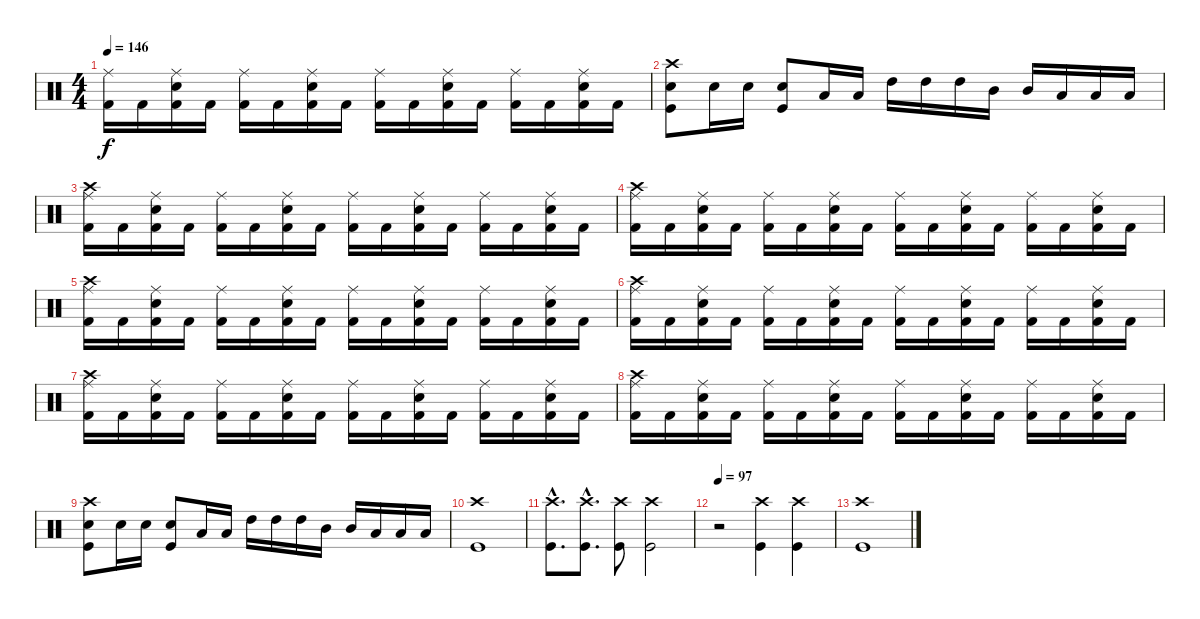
\track "" {instrument percussion}
\staff {score}
\articulation defaults
\ts (4 4)
\tempo 146
\clef neutral
\ks c
("Ride (middle)" "Kick (hit) 2").16{dy f} "Kick (hit) 2".16 ("Electric Snare (hit)" "Ride (middle)" "Kick (hit) 2").16 "Kick (hit) 2".16 ("Ride (middle)" "Kick (hit) 2").16 "Kick (hit) 2".16 ("Electric Snare (hit)" "Ride (middle)" "Kick (hit) 2").16 "Kick (hit) 2".16 ("Ride (middle)" "Kick (hit) 2").16 "Kick (hit) 2".16 ("Electric Snare (hit)" "Ride (middle)" "Kick (hit) 2").16 "Kick (hit) 2".16 ("Ride (middle)" "Kick (hit) 2").16 "Kick (hit) 2".16 ("Electric Snare (hit)" "Ride (middle)" "Kick (hit) 2").16 "Kick (hit) 2".16 |
("Crash high (hit)" "Kick (hit)" "Snare (hit) 2").8 "Snare (hit) 2".16 "Snare (hit) 2".16 ("Snare (hit) 2" "Kick (hit)").8 "Low Tom (hit)".16 "Low Tom (hit)".16 "High Tom (hit)".16 "High Tom (hit)".16 "High Tom (hit)".16 "Mid Tom (hit)".16 "Mid Tom (hit)".16 "Low Tom (hit)".16 "Low Tom (hit)".16 "Low Tom (hit)".16 |
("Crash high (hit)" "Ride (middle)" "Kick (hit) 2").16 "Kick (hit) 2".16 ("Electric Snare (hit)" "Ride (middle)" "Kick (hit) 2").16 "Kick (hit) 2".16 ("Ride (middle)" "Kick (hit) 2").16 "Kick (hit) 2".16 ("Electric Snare (hit)" "Ride (middle)" "Kick (hit) 2").16 "Kick (hit) 2".16 ("Ride (middle)" "Kick (hit) 2").16 "Kick (hit) 2".16 ("Electric Snare (hit)" "Ride (middle)" "Kick (hit) 2").16 "Kick (hit) 2".16 ("Ride (middle)" "Kick (hit) 2").16 "Kick (hit) 2".16 ("Electric Snare (hit)" "Ride (middle)" "Kick (hit) 2").16 "Kick (hit) 2".16 |
("Crash high (hit)" "Ride (middle)" "Kick (hit) 2").16 "Kick (hit) 2".16 ("Electric Snare (hit)" "Ride (middle)" "Kick (hit) 2").16 "Kick (hit) 2".16 ("Ride (middle)" "Kick (hit) 2").16 "Kick (hit) 2".16 ("Electric Snare (hit)" "Ride (middle)" "Kick (hit) 2").16 "Kick (hit) 2".16 ("Ride (middle)" "Kick (hit) 2").16 "Kick (hit) 2".16 ("Electric Snare (hit)" "Ride (middle)" "Kick (hit) 2").16 "Kick (hit) 2".16 ("Ride (middle)" "Kick (hit) 2").16 "Kick (hit) 2".16 ("Electric Snare (hit)" "Ride (middle)" "Kick (hit) 2").16 "Kick (hit) 2".16 |
("Crash high (hit)" "Ride (middle)" "Kick (hit) 2").16 "Kick (hit) 2".16 ("Electric Snare (hit)" "Ride (middle)" "Kick (hit) 2").16 "Kick (hit) 2".16 ("Ride (middle)" "Kick (hit) 2").16 "Kick (hit) 2".16 ("Electric Snare (hit)" "Ride (middle)" "Kick (hit) 2").16 "Kick (hit) 2".16 ("Ride (middle)" "Kick (hit) 2").16 "Kick (hit) 2".16 ("Electric Snare (hit)" "Ride (middle)" "Kick (hit) 2").16 "Kick (hit) 2".16 ("Ride (middle)" "Kick (hit) 2").16 "Kick (hit) 2".16 ("Electric Snare (hit)" "Ride (middle)" "Kick (hit) 2").16 "Kick (hit) 2".16 |
("Crash high (hit)" "Ride (middle)" "Kick (hit) 2").16 "Kick (hit) 2".16 ("Electric Snare (hit)" "Ride (middle)" "Kick (hit) 2").16 "Kick (hit) 2".16 ("Ride (middle)" "Kick (hit) 2").16 "Kick (hit) 2".16 ("Electric Snare (hit)" "Ride (middle)" "Kick (hit) 2").16 "Kick (hit) 2".16 ("Ride (middle)" "Kick (hit) 2").16 "Kick (hit) 2".16 ("Electric Snare (hit)" "Ride (middle)" "Kick (hit) 2").16 "Kick (hit) 2".16 ("Ride (middle)" "Kick (hit) 2").16 "Kick (hit) 2".16 ("Electric Snare (hit)" "Ride (middle)" "Kick (hit) 2").16 "Kick (hit) 2".16 |
("Crash high (hit)" "Ride (middle)" "Kick (hit) 2").16 "Kick (hit) 2".16 ("Electric Snare (hit)" "Ride (middle)" "Kick (hit) 2").16 "Kick (hit) 2".16 ("Ride (middle)" "Kick (hit) 2").16 "Kick (hit) 2".16 ("Electric Snare (hit)" "Ride (middle)" "Kick (hit) 2").16 "Kick (hit) 2".16 ("Ride (middle)" "Kick (hit) 2").16 "Kick (hit) 2".16 ("Electric Snare (hit)" "Ride (middle)" "Kick (hit) 2").16 "Kick (hit) 2".16 ("Ride (middle)" "Kick (hit) 2").16 "Kick (hit) 2".16 ("Electric Snare (hit)" "Ride (middle)" "Kick (hit) 2").16 "Kick (hit) 2".16 |
("Crash high (hit)" "Ride (middle)" "Kick (hit) 2").16 "Kick (hit) 2".16 ("Electric Snare (hit)" "Ride (middle)" "Kick (hit) 2").16 "Kick (hit) 2".16 ("Ride (middle)" "Kick (hit) 2").16 "Kick (hit) 2".16 ("Electric Snare (hit)" "Ride (middle)" "Kick (hit) 2").16 "Kick (hit) 2".16 ("Ride (middle)" "Kick (hit) 2").16 "Kick (hit) 2".16 ("Electric Snare (hit)" "Ride (middle)" "Kick (hit) 2").16 "Kick (hit) 2".16 ("Ride (middle)" "Kick (hit) 2").16 "Kick (hit) 2".16 ("Electric Snare (hit)" "Ride (middle)" "Kick (hit) 2").16 "Kick (hit) 2".16 |
("Crash high (hit)" "Kick (hit)" "Snare (hit) 2").8 "Snare (hit) 2".16 "Snare (hit) 2".16 ("Snare (hit) 2" "Kick (hit)").8 "Low Tom (hit)".16 "Low Tom (hit)".16 "High Tom (hit)".16 "High Tom (hit)".16 "High Tom (hit)".16 "Mid Tom (hit)".16 "Mid Tom (hit)".16 "Low Tom (hit)".16 "Low Tom (hit)".16 "Low Tom (hit)".16 |
("Crash high (hit)" "Kick (hit)").1 |
("Crash high (hit)"{hac} "Kick (hit)"{hac}).8{d} ("Crash high (hit)"{hac} "Kick (hit)"{hac}).8{d} ("Crash high (hit)" "Kick (hit)").8 ("Crash high (hit)" "Kick (hit)").2 |
\tempo 97
r.2 ("Crash high (hit)" "Kick (hit)").4 ("Crash high (hit)" "Kick (hit)").4 |
("Crash high (hit)" "Kick (hit)").1
